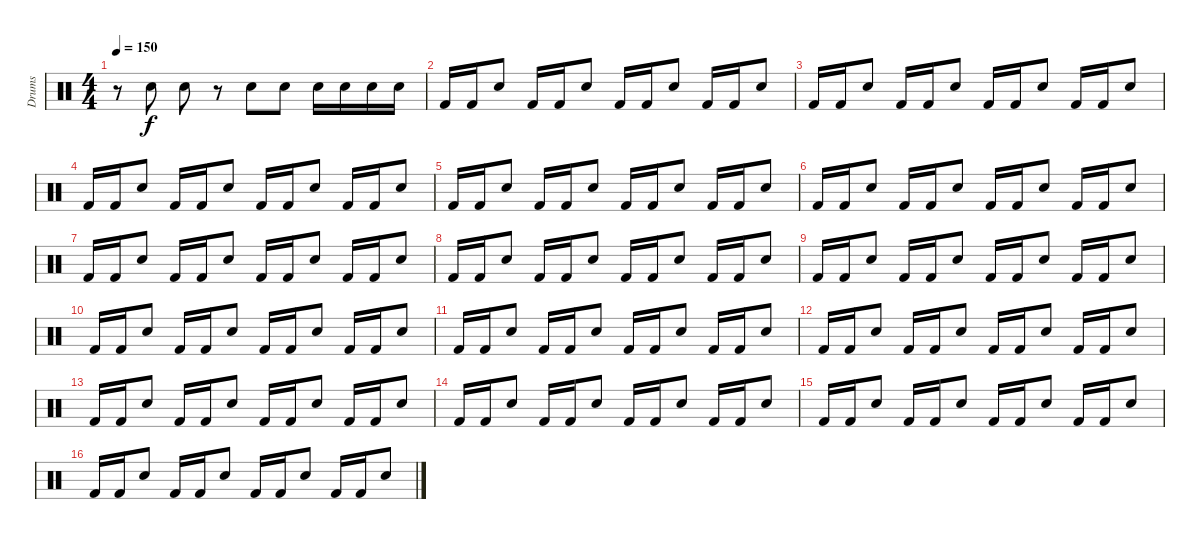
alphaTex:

\track ("Drums" "Drums") {instrument percussion}
\staff {score}
\articulation defaults
\ts (4 4)
\tempo 150
\clef neutral
\ks c
r.8{dy f} "Snare (hit) 2".8 "Snare (hit) 2".8 r.8 "Snare (hit) 2".8 "Snare (hit) 2".8 "Snare (hit) 2".16 "Snare (hit) 2".16 "Snare (hit) 2".16 "Snare (hit) 2".16 |
"Kick (hit) 2".16 "Kick (hit) 2".16 "Snare (hit) 2".8 "Kick (hit) 2".16 "Kick (hit) 2".16 "Snare (hit) 2".8 "Kick (hit) 2".16 "Kick (hit) 2".16 "Snare (hit) 2".8 "Kick (hit) 2".16 "Kick (hit) 2".16 "Snare (hit) 2".8 |
"Kick (hit) 2".16 "Kick (hit) 2".16 "Snare (hit) 2".8 "Kick (hit) 2".16 "Kick (hit) 2".16 "Snare (hit) 2".8 "Kick (hit) 2".16 "Kick (hit) 2".16 "Snare (hit) 2".8 "Kick (hit) 2".16 "Kick (hit) 2".16 "Snare (hit) 2".8 |
"Kick (hit) 2".16 "Kick (hit) 2".16 "Snare (hit) 2".8 "Kick (hit) 2".16 "Kick (hit) 2".16 "Snare (hit) 2".8 "Kick (hit) 2".16 "Kick (hit) 2".16 "Snare (hit) 2".8 "Kick (hit) 2".16 "Kick (hit) 2".16 "Snare (hit) 2".8 |
"Kick (hit) 2".16 "Kick (hit) 2".16 "Snare (hit) 2".8 "Kick (hit) 2".16 "Kick (hit) 2".16 "Snare (hit) 2".8 "Kick (hit) 2".16 "Kick (hit) 2".16 "Snare (hit) 2".8 "Kick (hit) 2".16 "Kick (hit) 2".16 "Snare (hit) 2".8 |
"Kick (hit) 2".16 "Kick (hit) 2".16 "Snare (hit) 2".8 "Kick (hit) 2".16 "Kick (hit) 2".16 "Snare (hit) 2".8 "Kick (hit) 2".16 "Kick (hit) 2".16 "Snare (hit) 2".8 "Kick (hit) 2".16 "Kick (hit) 2".16 "Snare (hit) 2".8 |
"Kick (hit) 2".16 "Kick (hit) 2".16 "Snare (hit) 2".8 "Kick (hit) 2".16 "Kick (hit) 2".16 "Snare (hit) 2".8 "Kick (hit) 2".16 "Kick (hit) 2".16 "Snare (hit) 2".8 "Kick (hit) 2".16 "Kick (hit) 2".16 "Snare (hit) 2".8 |
"Kick (hit) 2".16 "Kick (hit) 2".16 "Snare (hit) 2".8 "Kick (hit) 2".16 "Kick (hit) 2".16 "Snare (hit) 2".8 "Kick (hit) 2".16 "Kick (hit) 2".16 "Snare (hit) 2".8 "Kick (hit) 2".16 "Kick (hit) 2".16 "Snare (hit) 2".8 |
"Kick (hit) 2".16 "Kick (hit) 2".16 "Snare (hit) 2".8 "Kick (hit) 2".16 "Kick (hit) 2".16 "Snare (hit) 2".8 "Kick (hit) 2".16 "Kick (hit) 2".16 "Snare (hit) 2".8 "Kick (hit) 2".16 "Kick (hit) 2".16 "Snare (hit) 2".8 |
"Kick (hit) 2".16 "Kick (hit) 2".16 "Snare (hit) 2".8 "Kick (hit) 2".16 "Kick (hit) 2".16 "Snare (hit) 2".8 "Kick (hit) 2".16 "Kick (hit) 2".16 "Snare (hit) 2".8 "Kick (hit) 2".16 "Kick (hit) 2".16 "Snare (hit) 2".8 |
"Kick (hit) 2".16 "Kick (hit) 2".16 "Snare (hit) 2".8 "Kick (hit) 2".16 "Kick (hit) 2".16 "Snare (hit) 2".8 "Kick (hit) 2".16 "Kick (hit) 2".16 "Snare (hit) 2".8 "Kick (hit) 2".16 "Kick (hit) 2".16 "Snare (hit) 2".8 |
"Kick (hit) 2".16 "Kick (hit) 2".16 "Snare (hit) 2".8 "Kick (hit) 2".16 "Kick (hit) 2".16 "Snare (hit) 2".8 "Kick (hit) 2".16 "Kick (hit) 2".16 "Snare (hit) 2".8 "Kick (hit) 2".16 "Kick (hit) 2".16 "Snare (hit) 2".8 |
"Kick (hit) 2".16 "Kick (hit) 2".16 "Snare (hit) 2".8 "Kick (hit) 2".16 "Kick (hit) 2".16 "Snare (hit) 2".8 "Kick (hit) 2".16 "Kick (hit) 2".16 "Snare (hit) 2".8 "Kick (hit) 2".16 "Kick (hit) 2".16 "Snare (hit) 2".8 |
"Kick (hit) 2".16 "Kick (hit) 2".16 "Snare (hit) 2".8 "Kick (hit) 2".16 "Kick (hit) 2".16 "Snare (hit) 2".8 "Kick (hit) 2".16 "Kick (hit) 2".16 "Snare (hit) 2".8 "Kick (hit) 2".16 "Kick (hit) 2".16 "Snare (hit) 2".8 |
"Kick (hit) 2".16 "Kick (hit) 2".16 "Snare (hit) 2".8 "Kick (hit) 2".16 "Kick (hit) 2".16 "Snare (hit) 2".8 "Kick (hit) 2".16 "Kick (hit) 2".16 "Snare (hit) 2".8 "Kick (hit) 2".16 "Kick (hit) 2".16 "Snare (hit) 2".8 |
"Kick (hit) 2".16 "Kick (hit) 2".16 "Snare (hit) 2".8 "Kick (hit) 2".16 "Kick (hit) 2".16 "Snare (hit) 2".8 "Kick (hit) 2".16 "Kick (hit) 2".16 "Snare (hit) 2".8 "Kick (hit) 2".16 "Kick (hit) 2".16 "Snare (hit) 2".8
